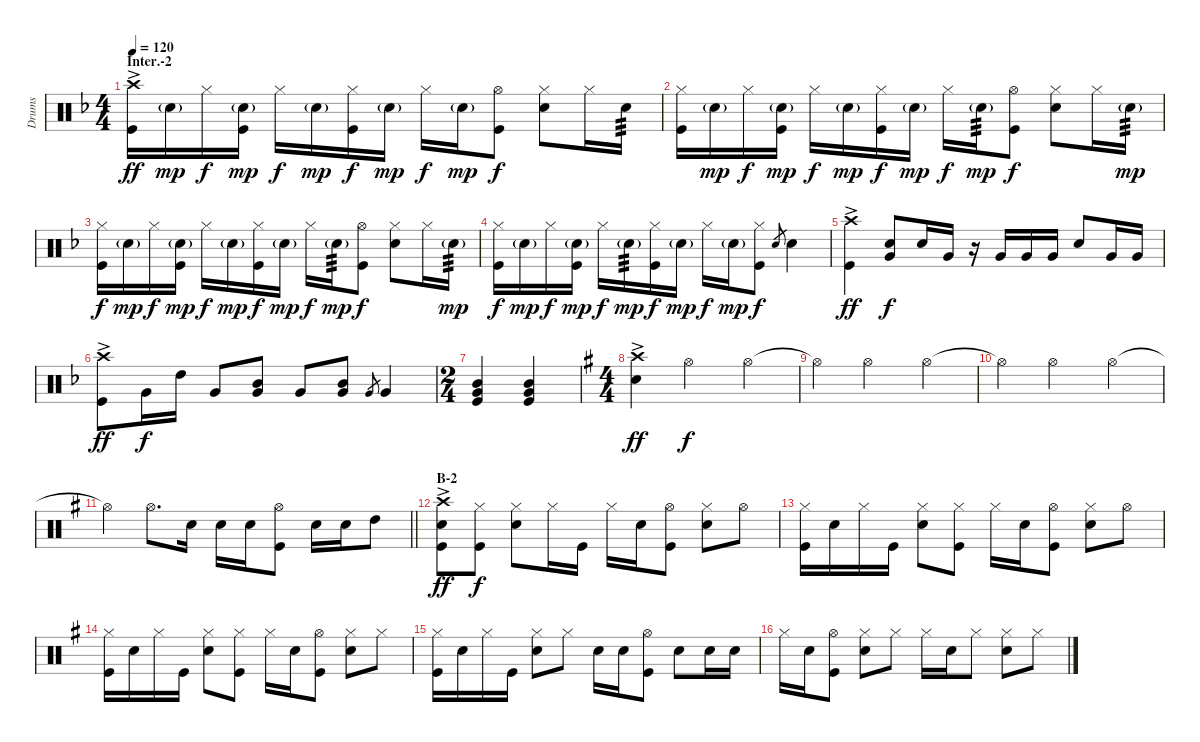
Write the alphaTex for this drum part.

\track ("Drums" "Drums") {instrument percussion}
\staff {score}
\articulation defaults
\ts (4 4)
\section ("" "Inter.-2")
\tempo 120
\clef neutral
\ks f
("Crash high (hit)"{ac} "Kick (hit)").16{dy ff} "Snare (hit) 2"{g}.16{dy mp} "Hi-Hat (closed)".16{dy f} ("Snare (hit) 2"{g} "Kick (hit)").16{dy mp} "Hi-Hat (closed)".16{dy f} "Snare (hit) 2"{g}.16{dy mp} ("Hi-Hat (closed)" "Kick (hit)").16{dy f} "Snare (hit) 2"{g}.16{dy mp} "Hi-Hat (closed)".16{dy f} "Snare (hit) 2"{g}.16{dy mp} ("Hi-Hat (open)" "Kick (hit)").8{dy f} ("Hi-Hat (closed)" "Snare (hit) 2").8 "Hi-Hat (closed)".16 "Snare (hit) 2".16{tp 3} |
("Hi-Hat (closed)" "Kick (hit)").16 "Snare (hit) 2"{g}.16{dy mp} "Hi-Hat (closed)".16{dy f} ("Snare (hit) 2"{g} "Kick (hit)").16{dy mp} "Hi-Hat (closed)".16{dy f} "Snare (hit) 2"{g}.16{dy mp} ("Hi-Hat (closed)" "Kick (hit)").16{dy f} "Snare (hit) 2"{g}.16{dy mp} "Hi-Hat (closed)".16{dy f} "Snare (hit) 2"{g}.16{tp 3 dy mp} ("Hi-Hat (open)" "Kick (hit)").8{dy f} ("Hi-Hat (closed)" "Snare (hit) 2").8 "Hi-Hat (closed)".16 "Snare (hit) 2"{g}.16{tp 3 dy mp} |
("Hi-Hat (closed)" "Kick (hit)").16{dy f} "Snare (hit) 2"{g}.16{dy mp} "Hi-Hat (closed)".16{dy f} ("Snare (hit) 2"{g} "Kick (hit)").16{dy mp} "Hi-Hat (closed)".16{dy f} "Snare (hit) 2"{g}.16{dy mp} ("Hi-Hat (closed)" "Kick (hit)").16{dy f} "Snare (hit) 2"{g}.16{dy mp} "Hi-Hat (closed)".16{dy f} "Snare (hit) 2"{g}.16{tp 3 dy mp} ("Hi-Hat (open)" "Kick (hit)").8{dy f} ("Hi-Hat (closed)" "Snare (hit) 2").8 "Hi-Hat (closed)".16 "Snare (hit) 2"{g}.16{tp 3 dy mp} |
("Hi-Hat (closed)" "Kick (hit)").16{dy f} "Snare (hit) 2"{g}.16{dy mp} "Hi-Hat (closed)".16{dy f} ("Snare (hit) 2"{g} "Kick (hit)").16{dy mp} "Hi-Hat (closed)".16{dy f} "Snare (hit) 2"{g}.16{tp 3 dy mp} ("Hi-Hat (closed)" "Kick (hit)").16{dy f} "Snare (hit) 2"{g}.16{dy mp} "Hi-Hat (closed)".16{dy f} "Snare (hit) 2"{g}.16{dy mp} ("Hi-Hat (closed)" "Kick (hit)").8{dy f} "Snare (hit) 2".8{gr} "Snare (hit) 2".4 |
("Crash high (hit)"{ac} "Kick (hit)").4{dy ff} ("Snare (hit) 2" "Very Low Tom (hit)").8{dy f} "Snare (hit) 2".16 "Very Low Tom (hit)".16 r.16 "Very Low Tom (hit)".16 "Very Low Tom (hit)".16 "Very Low Tom (hit)".16 "Snare (hit) 2".8 "Very Low Tom (hit)".16 "Very Low Tom (hit)".16 |
("Crash high (hit)"{ac} "Kick (hit)").8{dy ff} "Very Low Tom (hit)".16{dy f} "High Tom (hit)".16 "Very Low Tom (hit)".8 ("Very Low Tom (hit)" "Mid Tom (hit)").8 "Very Low Tom (hit)".8 ("Very Low Tom (hit)" "Mid Tom (hit)").8 "Very Low Tom (hit)".8{gr} "Very Low Tom (hit)".4 |
\ts (2 4)
("Mid Tom (hit)" "Kick (hit)" "Very Low Tom (hit)").4 ("Mid Tom (hit)" "Kick (hit)" "Very Low Tom (hit)").4 |
\ts (4 4)
\ks g
("Snare (hit) 2" "Crash high (hit)"{ac}).4{dy ff} "Hi-Hat (open)".2{dy f} "Hi-Hat (open)".4 |
"Hi-Hat (open)"{t}.4 "Hi-Hat (open)".2 "Hi-Hat (open)".4 |
"Hi-Hat (open)"{t}.4 "Hi-Hat (open)".2 "Hi-Hat (open)".4 |
\barLineRight lightlight "Hi-Hat (open)"{t}.4 "Hi-Hat (open)".8{d} "Snare (hit) 2".16 "Snare (hit) 2".16 "Snare (hit) 2".16
("Hi-Hat (open)" "Kick (hit)").8 "Snare (hit) 2".16 "Snare (hit) 2".16 "High Tom (hit)".8 |
\section ("" "B-2")
("Crash high (hit)"{ac} "Snare (hit) 2" "Kick (hit)").8{dy ff} ("Hi-Hat (closed)" "Kick (hit)").8{dy f} ("Hi-Hat (closed)" "Snare (hit) 2").8 "Hi-Hat (closed)".16 "Kick (hit)".16 "Hi-Hat (closed)".16 "Snare (hit) 2".16 ("Hi-Hat (open)" "Kick (hit)").8 ("Hi-Hat (closed)" "Snare (hit) 2").8 "Hi-Hat (open)".8 |
("Hi-Hat (closed)" "Kick (hit)").16 "Snare (hit) 2".16 "Hi-Hat (closed)".16 "Kick (hit)".16 ("Hi-Hat (closed)" "Snare (hit) 2").8 ("Hi-Hat (closed)" "Kick (hit)").8 "Hi-Hat (closed)".16 "Snare (hit) 2".16 ("Hi-Hat (open)" "Kick (hit)").8 ("Hi-Hat (closed)" "Snare (hit) 2").8 "Hi-Hat (open)".8 |
("Hi-Hat (closed)" "Kick (hit)").16 "Snare (hit) 2".16 "Hi-Hat (closed)".16 "Kick (hit)".16 ("Hi-Hat (closed)" "Snare (hit) 2").8 ("Hi-Hat (closed)" "Kick (hit)").8 "Hi-Hat (closed)".16 "Snare (hit) 2".16 ("Hi-Hat (open)" "Kick (hit)").8 ("Hi-Hat (closed)" "Snare (hit) 2").8 "Hi-Hat (closed)".8 |
("Hi-Hat (closed)" "Kick (hit)").16 "Snare (hit) 2".16 "Hi-Hat (closed)".16 "Kick (hit)".16 ("Hi-Hat (closed)" "Snare (hit) 2").8 "Hi-Hat (closed)".8 "Snare (hit) 2".16 "Snare (hit) 2".16 ("Hi-Hat (open)" "Kick (hit)").8 "Snare (hit) 2".8 "Snare (hit) 2".16 "Snare (hit) 2".16 |
"Hi-Hat (closed)".16 "Snare (hit) 2".16 ("Hi-Hat (open)" "Kick (hit)").8 ("Hi-Hat (closed)" "Snare (hit) 2").8 "Hi-Hat (closed)".8 "Hi-Hat (closed)".16 "Snare (hit) 2".16 "Hi-Hat (closed)".8 ("Hi-Hat (closed)" "Snare (hit) 2").8 "Hi-Hat (closed)".8
